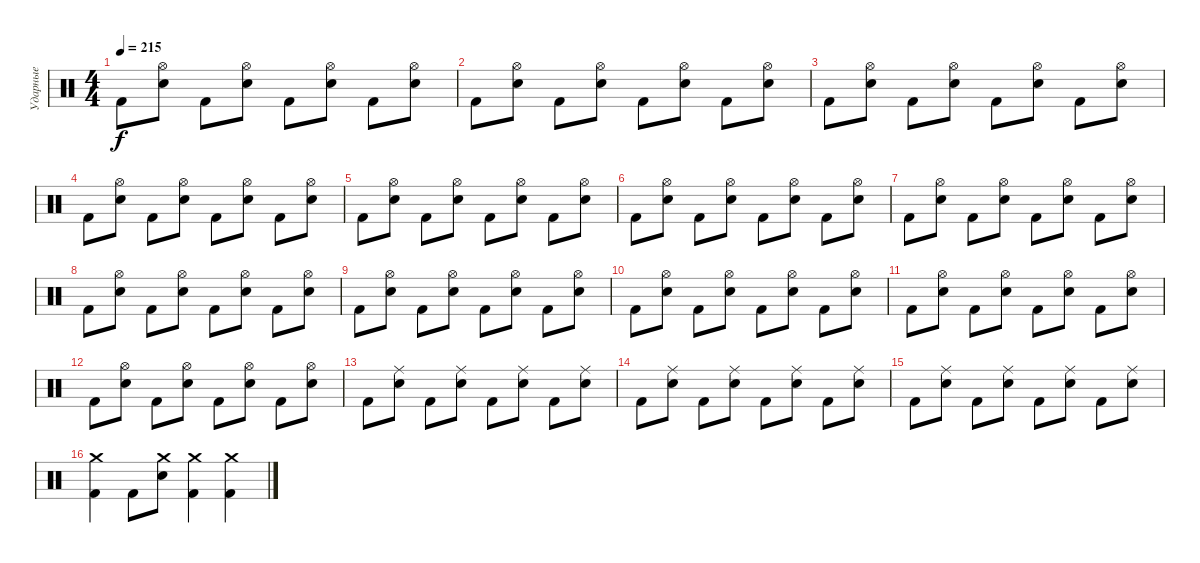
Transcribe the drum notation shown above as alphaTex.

\track ("Ударные" "Ударные") {instrument percussion}
\staff {score}
\articulation defaults
\ts (4 4)
\tempo 215
\clef neutral
\ks c "Kick (hit) 2".8{dy f}
("Hi-Hat (open)" "Snare (hit) 2").8 "Kick (hit) 2".8 ("Hi-Hat (open)" "Snare (hit) 2").8 "Kick (hit) 2".8 ("Hi-Hat (open)" "Snare (hit) 2").8 "Kick (hit) 2".8 ("Hi-Hat (open)" "Snare (hit) 2").8 |
"Kick (hit) 2".8 ("Hi-Hat (open)" "Snare (hit) 2").8 "Kick (hit) 2".8 ("Hi-Hat (open)" "Snare (hit) 2").8 "Kick (hit) 2".8 ("Hi-Hat (open)" "Snare (hit) 2").8 "Kick (hit) 2".8 ("Hi-Hat (open)" "Snare (hit) 2").8 |
"Kick (hit) 2".8 ("Hi-Hat (open)" "Snare (hit) 2").8 "Kick (hit) 2".8 ("Hi-Hat (open)" "Snare (hit) 2").8 "Kick (hit) 2".8 ("Hi-Hat (open)" "Snare (hit) 2").8 "Kick (hit) 2".8 ("Hi-Hat (open)" "Snare (hit) 2").8 |
"Kick (hit) 2".8 ("Hi-Hat (open)" "Snare (hit) 2").8 "Kick (hit) 2".8 ("Hi-Hat (open)" "Snare (hit) 2").8 "Kick (hit) 2".8 ("Hi-Hat (open)" "Snare (hit) 2").8 "Kick (hit) 2".8 ("Hi-Hat (open)" "Snare (hit) 2").8 |
"Kick (hit) 2".8 ("Hi-Hat (open)" "Snare (hit) 2").8 "Kick (hit) 2".8 ("Hi-Hat (open)" "Snare (hit) 2").8 "Kick (hit) 2".8 ("Hi-Hat (open)" "Snare (hit) 2").8 "Kick (hit) 2".8 ("Hi-Hat (open)" "Snare (hit) 2").8 |
"Kick (hit) 2".8 ("Hi-Hat (open)" "Snare (hit) 2").8 "Kick (hit) 2".8 ("Hi-Hat (open)" "Snare (hit) 2").8 "Kick (hit) 2".8 ("Hi-Hat (open)" "Snare (hit) 2").8 "Kick (hit) 2".8 ("Hi-Hat (open)" "Snare (hit) 2").8 |
"Kick (hit) 2".8 ("Hi-Hat (open)" "Snare (hit) 2").8 "Kick (hit) 2".8 ("Hi-Hat (open)" "Snare (hit) 2").8 "Kick (hit) 2".8 ("Hi-Hat (open)" "Snare (hit) 2").8 "Kick (hit) 2".8 ("Hi-Hat (open)" "Snare (hit) 2").8 |
"Kick (hit) 2".8 ("Hi-Hat (open)" "Snare (hit) 2").8 "Kick (hit) 2".8 ("Hi-Hat (open)" "Snare (hit) 2").8 "Kick (hit) 2".8 ("Hi-Hat (open)" "Snare (hit) 2").8 "Kick (hit) 2".8 ("Hi-Hat (open)" "Snare (hit) 2").8 |
"Kick (hit) 2".8 ("Hi-Hat (open)" "Snare (hit) 2").8 "Kick (hit) 2".8 ("Hi-Hat (open)" "Snare (hit) 2").8 "Kick (hit) 2".8 ("Hi-Hat (open)" "Snare (hit) 2").8 "Kick (hit) 2".8 ("Hi-Hat (open)" "Snare (hit) 2").8 |
"Kick (hit) 2".8 ("Hi-Hat (open)" "Snare (hit) 2").8 "Kick (hit) 2".8 ("Hi-Hat (open)" "Snare (hit) 2").8 "Kick (hit) 2".8 ("Hi-Hat (open)" "Snare (hit) 2").8 "Kick (hit) 2".8 ("Hi-Hat (open)" "Snare (hit) 2").8 |
"Kick (hit) 2".8 ("Hi-Hat (open)" "Snare (hit) 2").8 "Kick (hit) 2".8 ("Hi-Hat (open)" "Snare (hit) 2").8 "Kick (hit) 2".8 ("Hi-Hat (open)" "Snare (hit) 2").8 "Kick (hit) 2".8 ("Hi-Hat (open)" "Snare (hit) 2").8 |
"Kick (hit) 2".8 ("Hi-Hat (open)" "Snare (hit) 2").8 "Kick (hit) 2".8 ("Hi-Hat (open)" "Snare (hit) 2").8 "Kick (hit) 2".8 ("Hi-Hat (open)" "Snare (hit) 2").8 "Kick (hit) 2".8 ("Hi-Hat (open)" "Snare (hit) 2").8 |
"Kick (hit) 2".8 ("Ride (middle)" "Snare (hit) 2").8 "Kick (hit) 2".8 ("Ride (middle)" "Snare (hit) 2").8 "Kick (hit) 2".8 ("Ride (middle)" "Snare (hit) 2").8 "Kick (hit) 2".8 ("Ride (middle)" "Snare (hit) 2").8 |
"Kick (hit) 2".8 ("Ride (middle)" "Snare (hit) 2").8 "Kick (hit) 2".8 ("Ride (middle)" "Snare (hit) 2").8 "Kick (hit) 2".8 ("Ride (middle)" "Snare (hit) 2").8 "Kick (hit) 2".8 ("Ride (middle)" "Snare (hit) 2").8 |
"Kick (hit) 2".8 ("Ride (middle)" "Snare (hit) 2").8 "Kick (hit) 2".8 ("Ride (middle)" "Snare (hit) 2").8 "Kick (hit) 2".8 ("Ride (middle)" "Snare (hit) 2").8 "Kick (hit) 2".8 ("Ride (middle)" "Snare (hit) 2").8 |
("Crash medium (hit)" "Kick (hit) 2").4 "Kick (hit) 2".8 ("Crash medium (hit)" "Snare (hit) 2").8 ("Crash medium (hit)" "Kick (hit) 2").4 ("Crash medium (hit)" "Kick (hit) 2").4
